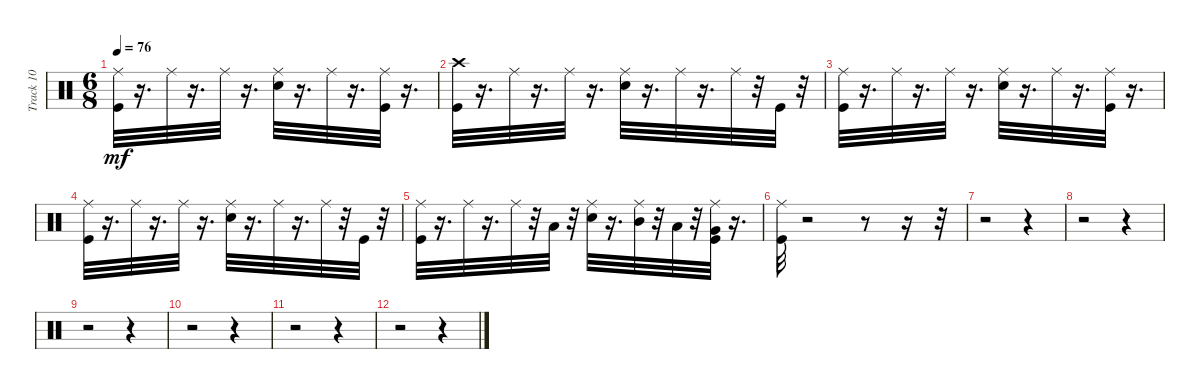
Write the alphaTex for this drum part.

\track ("Track 10" "Track 10") {instrument percussion}
\staff {score}
\articulation defaults
\ts (6 8)
\tempo 76
\clef neutral
\ks c
("Kick (hit)" "Ride (middle)").32{dy mf} r.16{d} "Ride (middle)".32 r.16{d} "Ride (middle)".32 r.16{d} ("Electric Snare (hit)" "Ride (middle)").32 r.16{d} "Ride (middle)".32 r.16{d} ("Kick (hit)" "Ride (middle)").32 r.16{d} |
("Kick (hit)" "Crash high (hit)").32 r.16{d} "Ride (middle)".32 r.16{d} "Ride (middle)".32 r.16{d} ("Electric Snare (hit)" "Ride (middle)").32 r.16{d} "Ride (middle)".32 r.16{d} "Ride (middle)".32 r.32 "Kick (hit)".32 r.32 |
("Kick (hit)" "Ride (middle)").32 r.16{d} "Ride (middle)".32 r.16{d} "Ride (middle)".32 r.16{d} ("Electric Snare (hit)" "Ride (middle)").32 r.16{d} "Ride (middle)".32 r.16{d} ("Kick (hit)" "Ride (middle)").32 r.16{d} |
("Kick (hit)" "Ride (middle)").32 r.16{d} "Ride (middle)".32 r.16{d} "Ride (middle)".32 r.16{d} ("Electric Snare (hit)" "Ride (middle)").32 r.16{d} "Ride (middle)".32 r.16{d} "Ride (middle)".32 r.32 "Kick (hit)".32 r.32 |
("Kick (hit)" "Ride (middle)").32 r.16{d} "Ride (middle)".32 r.16{d} "Ride (middle)".32 r.32 "Low Tom (hit)".32 r.32 ("Electric Snare (hit)" "Ride (middle)").32 r.16{d} ("Mid Tom (hit)" "Ride (middle)").32 r.32 "Low Tom (hit)".32 r.32 ("Kick (hit)" "Very Low Tom (hit)" "Ride (middle)").32 r.16{d} |
("Kick (hit)" "Ride (middle)").32 r.2 r.8 r.16 r.32 |
r.2 r.4 |
r.2 r.4 |
r.2 r.4 |
r.2 r.4 |
r.2 r.4 |
r.2 r.4
